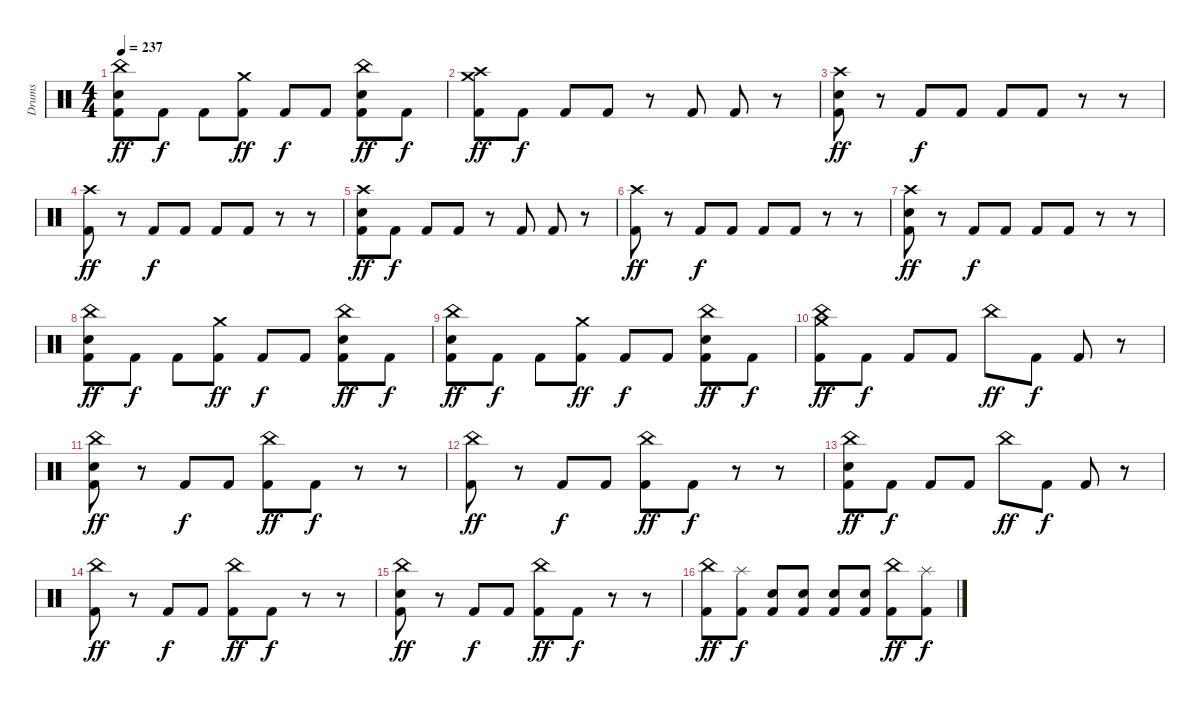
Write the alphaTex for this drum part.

\track ("Drums" "Drums") {instrument percussion}
\staff {score}
\articulation defaults
\ts (4 4)
\tempo 237
\clef neutral
\ks c
("China (hit)" "Electric Snare (hit)" "Kick (hit) 2").8{dy ff} "Kick (hit) 2".8{dy f} "Kick (hit) 2".8 ("Crash medium (hit)" "Kick (hit) 2").8{dy ff} "Kick (hit) 2".8{dy f} "Kick (hit) 2".8 ("China (hit)" "Electric Snare (hit)" "Kick (hit) 2").8{dy ff} "Kick (hit) 2".8{dy f} |
("Crash high (hit)" "Crash medium (hit)" "Kick (hit) 2").8{dy ff} "Kick (hit) 2".8{dy f} "Kick (hit) 2".8 "Kick (hit) 2".8 r.8 "Kick (hit) 2".8 "Kick (hit) 2".8 r.8 |
("Crash high (hit)" "Electric Snare (hit)" "Kick (hit) 2").8{dy ff} r.8 "Kick (hit) 2".8{dy f} "Kick (hit) 2".8 "Kick (hit) 2".8 "Kick (hit) 2".8 r.8 r.8 |
("Crash high (hit)" "Kick (hit) 2").8{dy ff} r.8 "Kick (hit) 2".8{dy f} "Kick (hit) 2".8 "Kick (hit) 2".8 "Kick (hit) 2".8 r.8 r.8 |
("Crash high (hit)" "Electric Snare (hit)" "Kick (hit) 2").8{dy ff} "Kick (hit) 2".8{dy f} "Kick (hit) 2".8 "Kick (hit) 2".8 r.8 "Kick (hit) 2".8 "Kick (hit) 2".8 r.8 |
("Crash high (hit)" "Kick (hit) 2").8{dy ff} r.8 "Kick (hit) 2".8{dy f} "Kick (hit) 2".8 "Kick (hit) 2".8 "Kick (hit) 2".8 r.8 r.8 |
("Crash high (hit)" "Electric Snare (hit)" "Kick (hit) 2").8{dy ff} r.8 "Kick (hit) 2".8{dy f} "Kick (hit) 2".8 "Kick (hit) 2".8 "Kick (hit) 2".8 r.8 r.8 |
("China (hit)" "Electric Snare (hit)" "Kick (hit) 2").8{dy ff} "Kick (hit) 2".8{dy f} "Kick (hit) 2".8 ("Crash medium (hit)" "Kick (hit) 2").8{dy ff} "Kick (hit) 2".8{dy f} "Kick (hit) 2".8 ("China (hit)" "Electric Snare (hit)" "Kick (hit) 2").8{dy ff} "Kick (hit) 2".8{dy f} |
("China (hit)" "Electric Snare (hit)" "Kick (hit) 2").8{dy ff} "Kick (hit) 2".8{dy f} "Kick (hit) 2".8 ("Crash medium (hit)" "Kick (hit) 2").8{dy ff} "Kick (hit) 2".8{dy f} "Kick (hit) 2".8 ("China (hit)" "Electric Snare (hit)" "Kick (hit) 2").8{dy ff} "Kick (hit) 2".8{dy f} |
("China (hit)" "Crash medium (hit)" "Kick (hit) 2").8{dy ff} "Kick (hit) 2".8{dy f} "Kick (hit) 2".8 "Kick (hit) 2".8 "China (hit)".8{dy ff} "Kick (hit) 2".8{dy f} "Kick (hit) 2".8 r.8 |
("China (hit)" "Electric Snare (hit)" "Kick (hit) 2").8{dy ff} r.8 "Kick (hit) 2".8{dy f} "Kick (hit) 2".8 ("China (hit)" "Kick (hit) 2").8{dy ff} "Kick (hit) 2".8{dy f} r.8 r.8 |
("China (hit)" "Kick (hit) 2").8{dy ff} r.8 "Kick (hit) 2".8{dy f} "Kick (hit) 2".8 ("China (hit)" "Kick (hit) 2").8{dy ff} "Kick (hit) 2".8{dy f} r.8 r.8 |
("China (hit)" "Electric Snare (hit)" "Kick (hit) 2").8{dy ff} "Kick (hit) 2".8{dy f} "Kick (hit) 2".8 "Kick (hit) 2".8 "China (hit)".8{dy ff} "Kick (hit) 2".8{dy f} "Kick (hit) 2".8 r.8 |
("China (hit)" "Kick (hit) 2").8{dy ff} r.8 "Kick (hit) 2".8{dy f} "Kick (hit) 2".8 ("China (hit)" "Kick (hit) 2").8{dy ff} "Kick (hit) 2".8{dy f} r.8 r.8 |
("China (hit)" "Electric Snare (hit)" "Kick (hit) 2").8{dy ff} r.8 "Kick (hit) 2".8{dy f} "Kick (hit) 2".8 ("China (hit)" "Kick (hit) 2").8{dy ff} "Kick (hit) 2".8{dy f} r.8 r.8 |
("China (hit)" "Kick (hit) 2").8{dy ff} ("Splash (hit)" "Kick (hit) 2").8{dy f} ("Electric Snare (hit)" "Kick (hit) 2").8 ("Electric Snare (hit)" "Kick (hit) 2").8 ("Electric Snare (hit)" "Kick (hit) 2").8 ("Electric Snare (hit)" "Kick (hit) 2").8 ("China (hit)" "Kick (hit) 2").8{dy ff} ("Splash (hit)" "Kick (hit) 2").8{dy f}
